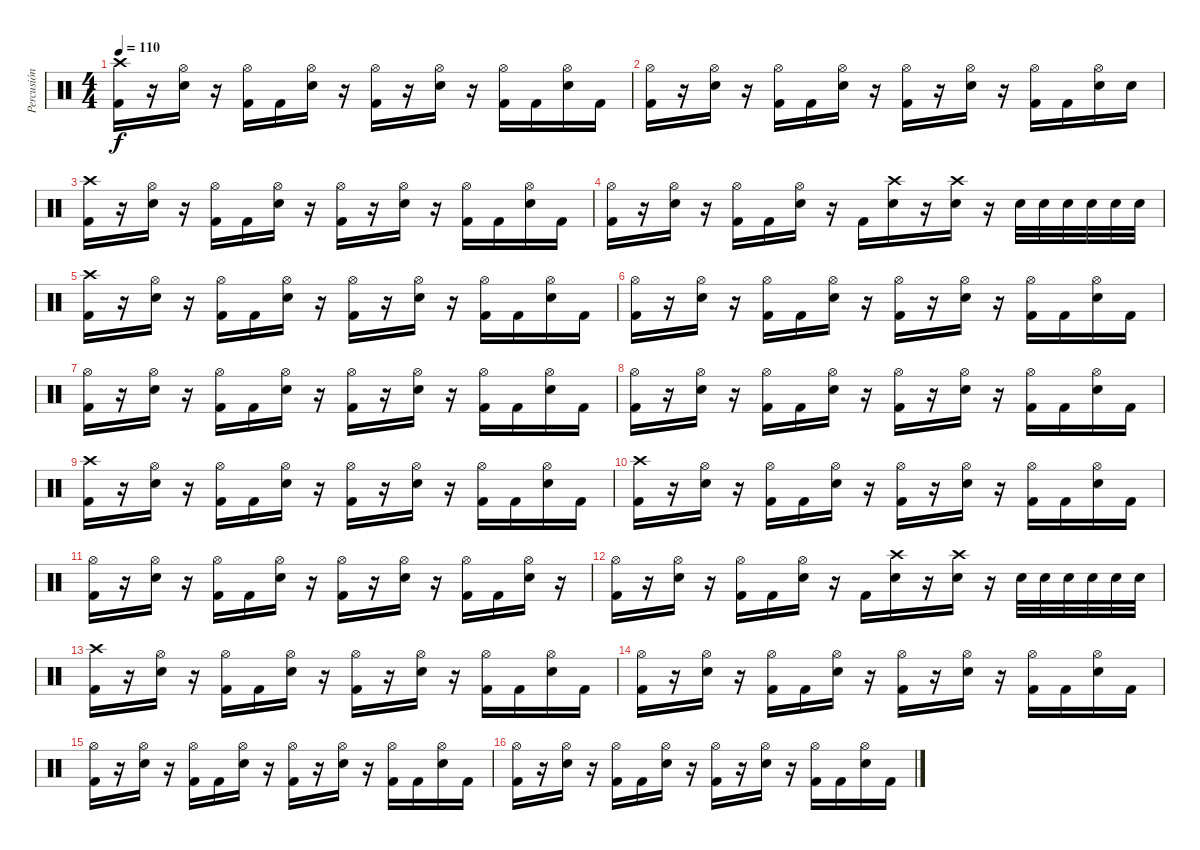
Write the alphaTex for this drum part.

\track ("Percusión" "Percusión") {instrument percussion}
\staff {score}
\articulation defaults
\ts (4 4)
\tempo 110
\clef neutral
\ks c
("Crash high (hit)" "Kick (hit) 2").16{dy f} r.16 ("Hi-Hat (open)" "Electric Snare (hit)").16 r.16 ("Hi-Hat (open)" "Kick (hit) 2").16 "Kick (hit) 2".16 ("Hi-Hat (open)" "Electric Snare (hit)").16 r.16 ("Hi-Hat (open)" "Kick (hit) 2").16 r.16 ("Hi-Hat (open)" "Electric Snare (hit)").16 r.16 ("Hi-Hat (open)" "Kick (hit) 2").16 "Kick (hit) 2".16 ("Hi-Hat (open)" "Electric Snare (hit)").16 "Kick (hit) 2".16 |
("Hi-Hat (open)" "Kick (hit) 2").16 r.16 ("Hi-Hat (open)" "Electric Snare (hit)").16 r.16 ("Hi-Hat (open)" "Kick (hit) 2").16 "Kick (hit) 2".16 ("Hi-Hat (open)" "Electric Snare (hit)").16 r.16 ("Hi-Hat (open)" "Kick (hit) 2").16 r.16 ("Hi-Hat (open)" "Electric Snare (hit)").16 r.16 ("Hi-Hat (open)" "Kick (hit) 2").16 "Kick (hit) 2".16 ("Hi-Hat (open)" "Electric Snare (hit)").16 "Electric Snare (hit)".16 |
("Crash high (hit)" "Kick (hit) 2").16 r.16 ("Hi-Hat (open)" "Electric Snare (hit)").16 r.16 ("Hi-Hat (open)" "Kick (hit) 2").16 "Kick (hit) 2".16 ("Hi-Hat (open)" "Electric Snare (hit)").16 r.16 ("Hi-Hat (open)" "Kick (hit) 2").16 r.16 ("Hi-Hat (open)" "Electric Snare (hit)").16 r.16 ("Hi-Hat (open)" "Kick (hit) 2").16 "Kick (hit) 2".16 ("Hi-Hat (open)" "Electric Snare (hit)").16 "Kick (hit) 2".16 |
("Hi-Hat (open)" "Kick (hit) 2").16 r.16 ("Hi-Hat (open)" "Electric Snare (hit)").16 r.16 ("Hi-Hat (open)" "Kick (hit) 2").16 "Kick (hit) 2".16 ("Hi-Hat (open)" "Electric Snare (hit)").16 r.16 "Kick (hit) 2".16 ("Crash high (hit)" "Electric Snare (hit)").16 r.16 ("Crash high (hit)" "Electric Snare (hit)").16 r.16 "Electric Snare (hit)".32 "Electric Snare (hit)".32 "Electric Snare (hit)".32 "Electric Snare (hit)".32 "Electric Snare (hit)".32 "Electric Snare (hit)".32 |
("Crash high (hit)" "Kick (hit) 2").16 r.16 ("Hi-Hat (open)" "Electric Snare (hit)").16 r.16 ("Hi-Hat (open)" "Kick (hit) 2").16 "Kick (hit) 2".16 ("Hi-Hat (open)" "Electric Snare (hit)").16 r.16 ("Hi-Hat (open)" "Kick (hit) 2").16 r.16 ("Hi-Hat (open)" "Electric Snare (hit)").16 r.16 ("Hi-Hat (open)" "Kick (hit) 2").16 "Kick (hit) 2".16 ("Hi-Hat (open)" "Electric Snare (hit)").16 "Kick (hit) 2".16 |
("Hi-Hat (open)" "Kick (hit) 2").16 r.16 ("Hi-Hat (open)" "Electric Snare (hit)").16 r.16 ("Hi-Hat (open)" "Kick (hit) 2").16 "Kick (hit) 2".16 ("Hi-Hat (open)" "Electric Snare (hit)").16 r.16 ("Hi-Hat (open)" "Kick (hit) 2").16 r.16 ("Hi-Hat (open)" "Electric Snare (hit)").16 r.16 ("Hi-Hat (open)" "Kick (hit) 2").16 "Kick (hit) 2".16 ("Hi-Hat (open)" "Electric Snare (hit)").16 "Kick (hit) 2".16 |
("Hi-Hat (open)" "Kick (hit) 2").16 r.16 ("Hi-Hat (open)" "Electric Snare (hit)").16 r.16 ("Hi-Hat (open)" "Kick (hit) 2").16 "Kick (hit) 2".16 ("Hi-Hat (open)" "Electric Snare (hit)").16 r.16 ("Hi-Hat (open)" "Kick (hit) 2").16 r.16 ("Hi-Hat (open)" "Electric Snare (hit)").16 r.16 ("Hi-Hat (open)" "Kick (hit) 2").16 "Kick (hit) 2".16 ("Hi-Hat (open)" "Electric Snare (hit)").16 "Kick (hit) 2".16 |
("Hi-Hat (open)" "Kick (hit) 2").16 r.16 ("Hi-Hat (open)" "Electric Snare (hit)").16 r.16 ("Hi-Hat (open)" "Kick (hit) 2").16 "Kick (hit) 2".16 ("Hi-Hat (open)" "Electric Snare (hit)").16 r.16 ("Hi-Hat (open)" "Kick (hit) 2").16 r.16 ("Hi-Hat (open)" "Electric Snare (hit)").16 r.16 ("Hi-Hat (open)" "Kick (hit) 2").16 "Kick (hit) 2".16 ("Hi-Hat (open)" "Electric Snare (hit)").16 "Kick (hit) 2".16 |
("Crash high (hit)" "Kick (hit) 2").16 r.16 ("Hi-Hat (open)" "Electric Snare (hit)").16 r.16 ("Hi-Hat (open)" "Kick (hit) 2").16 "Kick (hit) 2".16 ("Hi-Hat (open)" "Electric Snare (hit)").16 r.16 ("Hi-Hat (open)" "Kick (hit) 2").16 r.16 ("Hi-Hat (open)" "Electric Snare (hit)").16 r.16 ("Hi-Hat (open)" "Kick (hit) 2").16 "Kick (hit) 2".16 ("Hi-Hat (open)" "Electric Snare (hit)").16 "Kick (hit) 2".16 |
("Crash high (hit)" "Kick (hit) 2").16 r.16 ("Hi-Hat (open)" "Electric Snare (hit)").16 r.16 ("Hi-Hat (open)" "Kick (hit) 2").16 "Kick (hit) 2".16 ("Hi-Hat (open)" "Electric Snare (hit)").16 r.16 ("Hi-Hat (open)" "Kick (hit) 2").16 r.16 ("Hi-Hat (open)" "Electric Snare (hit)").16 r.16 ("Hi-Hat (open)" "Kick (hit) 2").16 "Kick (hit) 2".16 ("Hi-Hat (open)" "Electric Snare (hit)").16 "Kick (hit) 2".16 |
("Hi-Hat (open)" "Kick (hit) 2").16 r.16 ("Hi-Hat (open)" "Electric Snare (hit)").16 r.16 ("Hi-Hat (open)" "Kick (hit) 2").16 "Kick (hit) 2".16 ("Hi-Hat (open)" "Electric Snare (hit)").16 r.16 ("Hi-Hat (open)" "Kick (hit) 2").16 r.16 ("Hi-Hat (open)" "Electric Snare (hit)").16 r.16 ("Hi-Hat (open)" "Kick (hit) 2").16 "Kick (hit) 2".16 ("Hi-Hat (open)" "Electric Snare (hit)").16 r.16 |
("Hi-Hat (open)" "Kick (hit) 2").16 r.16 ("Hi-Hat (open)" "Electric Snare (hit)").16 r.16 ("Hi-Hat (open)" "Kick (hit) 2").16 "Kick (hit) 2".16 ("Hi-Hat (open)" "Electric Snare (hit)").16 r.16 "Kick (hit) 2".16 ("Crash high (hit)" "Electric Snare (hit)").16 r.16 ("Crash high (hit)" "Electric Snare (hit)").16 r.16 "Electric Snare (hit)".32 "Electric Snare (hit)".32 "Electric Snare (hit)".32 "Electric Snare (hit)".32 "Electric Snare (hit)".32 "Electric Snare (hit)".32 |
("Crash high (hit)" "Kick (hit) 2").16 r.16 ("Hi-Hat (open)" "Electric Snare (hit)").16 r.16 ("Hi-Hat (open)" "Kick (hit) 2").16 "Kick (hit) 2".16 ("Hi-Hat (open)" "Electric Snare (hit)").16 r.16 ("Hi-Hat (open)" "Kick (hit) 2").16 r.16 ("Hi-Hat (open)" "Electric Snare (hit)").16 r.16 ("Hi-Hat (open)" "Kick (hit) 2").16 "Kick (hit) 2".16 ("Hi-Hat (open)" "Electric Snare (hit)").16 "Kick (hit) 2".16 |
("Hi-Hat (open)" "Kick (hit) 2").16 r.16 ("Hi-Hat (open)" "Electric Snare (hit)").16 r.16 ("Hi-Hat (open)" "Kick (hit) 2").16 "Kick (hit) 2".16 ("Hi-Hat (open)" "Electric Snare (hit)").16 r.16 ("Hi-Hat (open)" "Kick (hit) 2").16 r.16 ("Hi-Hat (open)" "Electric Snare (hit)").16 r.16 ("Hi-Hat (open)" "Kick (hit) 2").16 "Kick (hit) 2".16 ("Hi-Hat (open)" "Electric Snare (hit)").16 "Kick (hit) 2".16 |
("Hi-Hat (open)" "Kick (hit) 2").16 r.16 ("Hi-Hat (open)" "Electric Snare (hit)").16 r.16 ("Hi-Hat (open)" "Kick (hit) 2").16 "Kick (hit) 2".16 ("Hi-Hat (open)" "Electric Snare (hit)").16 r.16 ("Hi-Hat (open)" "Kick (hit) 2").16 r.16 ("Hi-Hat (open)" "Electric Snare (hit)").16 r.16 ("Hi-Hat (open)" "Kick (hit) 2").16 "Kick (hit) 2".16 ("Hi-Hat (open)" "Electric Snare (hit)").16 "Kick (hit) 2".16 |
("Hi-Hat (open)" "Kick (hit) 2").16 r.16 ("Hi-Hat (open)" "Electric Snare (hit)").16 r.16 ("Hi-Hat (open)" "Kick (hit) 2").16 "Kick (hit) 2".16 ("Hi-Hat (open)" "Electric Snare (hit)").16 r.16 ("Hi-Hat (open)" "Kick (hit) 2").16 r.16 ("Hi-Hat (open)" "Electric Snare (hit)").16 r.16 ("Hi-Hat (open)" "Kick (hit) 2").16 "Kick (hit) 2".16 ("Hi-Hat (open)" "Electric Snare (hit)").16 "Kick (hit) 2".16
